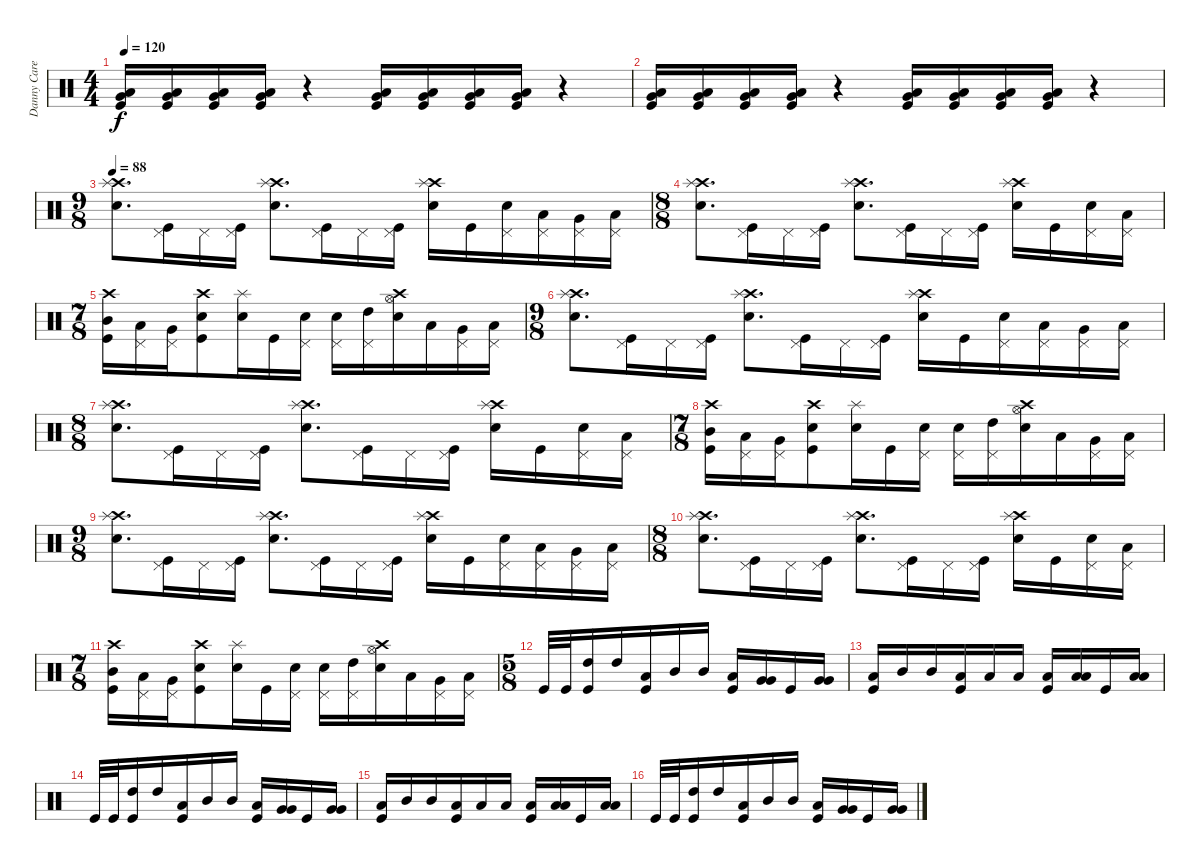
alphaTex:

\track ("Danny Carey" "Danny Care") {instrument percussion}
\staff {score}
\articulation defaults
\ts (4 4)
\tempo 120
\clef neutral
\ks c
("Very Low Tom (hit)" "Low Floor Tom (hit)" "Kick (hit)").16{dy f volume 16} ("Very Low Tom (hit)" "Low Floor Tom (hit)" "Kick (hit)").16 ("Very Low Tom (hit)" "Low Floor Tom (hit)" "Kick (hit)").16 ("Very Low Tom (hit)" "Low Floor Tom (hit)" "Kick (hit)").16 r.4 ("Very Low Tom (hit)" "Low Floor Tom (hit)" "Kick (hit)").16 ("Very Low Tom (hit)" "Low Floor Tom (hit)" "Kick (hit)").16 ("Very Low Tom (hit)" "Low Floor Tom (hit)" "Kick (hit)").16 ("Very Low Tom (hit)" "Low Floor Tom (hit)" "Kick (hit)").16 r.4 |
("Very Low Tom (hit)" "Low Floor Tom (hit)" "Kick (hit)").16 ("Very Low Tom (hit)" "Low Floor Tom (hit)" "Kick (hit)").16 ("Very Low Tom (hit)" "Low Floor Tom (hit)" "Kick (hit)").16 ("Very Low Tom (hit)" "Low Floor Tom (hit)" "Kick (hit)").16 r.4 ("Very Low Tom (hit)" "Low Floor Tom (hit)" "Kick (hit)").16 ("Very Low Tom (hit)" "Low Floor Tom (hit)" "Kick (hit)").16 ("Very Low Tom (hit)" "Low Floor Tom (hit)" "Kick (hit)").16 ("Very Low Tom (hit)" "Low Floor Tom (hit)" "Kick (hit)").16 r.4 |
\ts (9 8)
\tempo 88
("Crash high (hit)" "Splash (hit)" "Electric Snare (hit)").8{d} ("Pedal Hi-Hat (hit)" "Kick (hit)").16 "Pedal Hi-Hat (hit)".16 ("Pedal Hi-Hat (hit)" "Kick (hit)").16 ("Crash high (hit)" "Splash (hit)" "Electric Snare (hit)").8{d} ("Pedal Hi-Hat (hit)" "Kick (hit)").16 "Pedal Hi-Hat (hit)".16 ("Pedal Hi-Hat (hit)" "Kick (hit)").16 ("Crash high (hit)" "Splash (hit)" "Electric Snare (hit)").16 "Kick (hit)".16 ("Pedal Hi-Hat (hit)" "Electric Snare (hit)").16 ("Pedal Hi-Hat (hit)" "Low Tom (hit)").16 ("Pedal Hi-Hat (hit)" "Very Low Tom (hit)").16 ("Pedal Hi-Hat (hit)" "Low Floor Tom (hit)").16 |
\ts (8 8)
("Crash high (hit)" "Splash (hit)" "Electric Snare (hit)").8{d} ("Pedal Hi-Hat (hit)" "Kick (hit)").16 "Pedal Hi-Hat (hit)".16 ("Pedal Hi-Hat (hit)" "Kick (hit)").16 ("Crash high (hit)" "Splash (hit)" "Electric Snare (hit)").8{d} ("Pedal Hi-Hat (hit)" "Kick (hit)").16 "Pedal Hi-Hat (hit)".16 ("Pedal Hi-Hat (hit)" "Kick (hit)").16 ("Crash high (hit)" "Splash (hit)" "Electric Snare (hit)").16 "Kick (hit)".16 ("Pedal Hi-Hat (hit)" "Electric Snare (hit)").16 ("Pedal Hi-Hat (hit)" "Low Tom (hit)").16 |
\ts (7 8)
("Crash high (hit)" "Mid Tom (hit)" "Kick (hit)").16 ("Pedal Hi-Hat (hit)" "Low Tom (hit)").16 ("Pedal Hi-Hat (hit)" "Very Low Tom (hit)").16 ("Crash high (hit)" "Electric Snare (hit)" "Kick (hit)").8 ("Splash (hit)" "Electric Snare (hit)").16 "Kick (hit)".16 ("Pedal Hi-Hat (hit)" "Electric Snare (hit)").16 ("Pedal Hi-Hat (hit)" "Electric Snare (hit)").16 ("Pedal Hi-Hat (hit)" "High Tom (hit)").16 ("Crash high (hit)" "Hi-Hat (open)" "Electric Snare (hit)").16 "Low Tom (hit)".16 ("Pedal Hi-Hat (hit)" "Very Low Tom (hit)").16 ("Pedal Hi-Hat (hit)" "Low Floor Tom (hit)").16 |
\ts (9 8)
("Crash high (hit)" "Splash (hit)" "Electric Snare (hit)").8{d} ("Pedal Hi-Hat (hit)" "Kick (hit)").16 "Pedal Hi-Hat (hit)".16 ("Pedal Hi-Hat (hit)" "Kick (hit)").16 ("Crash high (hit)" "Splash (hit)" "Electric Snare (hit)").8{d} ("Pedal Hi-Hat (hit)" "Kick (hit)").16 "Pedal Hi-Hat (hit)".16 ("Pedal Hi-Hat (hit)" "Kick (hit)").16 ("Crash high (hit)" "Splash (hit)" "Electric Snare (hit)").16 "Kick (hit)".16 ("Pedal Hi-Hat (hit)" "Electric Snare (hit)").16 ("Pedal Hi-Hat (hit)" "Low Tom (hit)").16 ("Pedal Hi-Hat (hit)" "Very Low Tom (hit)").16 ("Pedal Hi-Hat (hit)" "Low Floor Tom (hit)").16 |
\ts (8 8)
("Crash high (hit)" "Splash (hit)" "Electric Snare (hit)").8{d} ("Pedal Hi-Hat (hit)" "Kick (hit)").16 "Pedal Hi-Hat (hit)".16 ("Pedal Hi-Hat (hit)" "Kick (hit)").16 ("Crash high (hit)" "Splash (hit)" "Electric Snare (hit)").8{d} ("Pedal Hi-Hat (hit)" "Kick (hit)").16 "Pedal Hi-Hat (hit)".16 ("Pedal Hi-Hat (hit)" "Kick (hit)").16 ("Crash high (hit)" "Splash (hit)" "Electric Snare (hit)").16 "Kick (hit)".16 ("Pedal Hi-Hat (hit)" "Electric Snare (hit)").16 ("Pedal Hi-Hat (hit)" "Low Tom (hit)").16 |
\ts (7 8)
("Crash high (hit)" "Mid Tom (hit)" "Kick (hit)").16 ("Pedal Hi-Hat (hit)" "Low Tom (hit)").16 ("Pedal Hi-Hat (hit)" "Very Low Tom (hit)").16 ("Crash high (hit)" "Electric Snare (hit)" "Kick (hit)").8 ("Splash (hit)" "Electric Snare (hit)").16 "Kick (hit)".16 ("Pedal Hi-Hat (hit)" "Electric Snare (hit)").16 ("Pedal Hi-Hat (hit)" "Electric Snare (hit)").16 ("Pedal Hi-Hat (hit)" "High Tom (hit)").16 ("Crash high (hit)" "Hi-Hat (open)" "Electric Snare (hit)").16 "Low Tom (hit)".16 ("Pedal Hi-Hat (hit)" "Very Low Tom (hit)").16 ("Pedal Hi-Hat (hit)" "Low Floor Tom (hit)").16 |
\ts (9 8)
("Crash high (hit)" "Splash (hit)" "Electric Snare (hit)").8{d} ("Pedal Hi-Hat (hit)" "Kick (hit)").16 "Pedal Hi-Hat (hit)".16 ("Pedal Hi-Hat (hit)" "Kick (hit)").16 ("Crash high (hit)" "Splash (hit)" "Electric Snare (hit)").8{d} ("Pedal Hi-Hat (hit)" "Kick (hit)").16 "Pedal Hi-Hat (hit)".16 ("Pedal Hi-Hat (hit)" "Kick (hit)").16 ("Crash high (hit)" "Splash (hit)" "Electric Snare (hit)").16 "Kick (hit)".16 ("Pedal Hi-Hat (hit)" "Electric Snare (hit)").16 ("Pedal Hi-Hat (hit)" "Low Tom (hit)").16 ("Pedal Hi-Hat (hit)" "Very Low Tom (hit)").16 ("Pedal Hi-Hat (hit)" "Low Floor Tom (hit)").16 |
\ts (8 8)
("Crash high (hit)" "Splash (hit)" "Electric Snare (hit)").8{d} ("Pedal Hi-Hat (hit)" "Kick (hit)").16 "Pedal Hi-Hat (hit)".16 ("Pedal Hi-Hat (hit)" "Kick (hit)").16 ("Crash high (hit)" "Splash (hit)" "Electric Snare (hit)").8{d} ("Pedal Hi-Hat (hit)" "Kick (hit)").16 "Pedal Hi-Hat (hit)".16 ("Pedal Hi-Hat (hit)" "Kick (hit)").16 ("Crash high (hit)" "Splash (hit)" "Electric Snare (hit)").16 "Kick (hit)".16 ("Pedal Hi-Hat (hit)" "Electric Snare (hit)").16 ("Pedal Hi-Hat (hit)" "Low Tom (hit)").16 |
\ts (7 8)
("Crash high (hit)" "Mid Tom (hit)" "Kick (hit)").16 ("Pedal Hi-Hat (hit)" "Low Tom (hit)").16 ("Pedal Hi-Hat (hit)" "Very Low Tom (hit)").16 ("Crash high (hit)" "Electric Snare (hit)" "Kick (hit)").8 ("Splash (hit)" "Electric Snare (hit)").16 "Kick (hit)".16 ("Pedal Hi-Hat (hit)" "Electric Snare (hit)").16 ("Pedal Hi-Hat (hit)" "Electric Snare (hit)").16 ("Pedal Hi-Hat (hit)" "High Tom (hit)").16 ("Crash high (hit)" "Hi-Hat (open)" "Electric Snare (hit)").16 "Low Tom (hit)".16 ("Pedal Hi-Hat (hit)" "Very Low Tom (hit)").16 ("Pedal Hi-Hat (hit)" "Low Floor Tom (hit)").16 |
\ts (5 8)
"Kick (hit)".32 "Kick (hit)".32 ("High Tom (hit)" "Kick (hit)").16 "High Tom (hit)".16 ("Low Floor Tom (hit)" "Kick (hit)").16 "Mid Tom (hit)".16 "Mid Tom (hit)".16 ("Low Floor Tom (hit)" "Kick (hit)").16 ("Very Low Tom (hit)" "Very Low Tom (hit)").16 "Kick (hit)".16 ("Very Low Tom (hit)" "Very Low Tom (hit)").16 |
("Low Floor Tom (hit)" "Kick (hit)").16 "Mid Tom (hit)".16 "Mid Tom (hit)".16 ("Low Floor Tom (hit)" "Kick (hit)").16 "Low Tom (hit)".16 "Low Tom (hit)".16 ("Low Floor Tom (hit)" "Kick (hit)").16 ("Low Floor Tom (hit)" "Low Floor Tom (hit)").16 "Kick (hit)".16 ("Low Floor Tom (hit)" "Low Floor Tom (hit)").16 |
"Kick (hit)".32 "Kick (hit)".32 ("High Tom (hit)" "Kick (hit)").16 "High Tom (hit)".16 ("Low Floor Tom (hit)" "Kick (hit)").16 "Mid Tom (hit)".16 "Mid Tom (hit)".16 ("Low Floor Tom (hit)" "Kick (hit)").16 ("Very Low Tom (hit)" "Very Low Tom (hit)").16 "Kick (hit)".16 ("Very Low Tom (hit)" "Very Low Tom (hit)").16 |
("Low Floor Tom (hit)" "Kick (hit)").16 "Mid Tom (hit)".16 "Mid Tom (hit)".16 ("Low Floor Tom (hit)" "Kick (hit)").16 "Low Tom (hit)".16 "Low Tom (hit)".16 ("Low Floor Tom (hit)" "Kick (hit)").16 ("Low Floor Tom (hit)" "Low Floor Tom (hit)").16 "Kick (hit)".16 ("Low Floor Tom (hit)" "Low Floor Tom (hit)").16 |
"Kick (hit)".32 "Kick (hit)".32 ("High Tom (hit)" "Kick (hit)").16 "High Tom (hit)".16 ("Low Floor Tom (hit)" "Kick (hit)").16 "Mid Tom (hit)".16 "Mid Tom (hit)".16 ("Low Floor Tom (hit)" "Kick (hit)").16 ("Very Low Tom (hit)" "Very Low Tom (hit)").16 "Kick (hit)".16 ("Very Low Tom (hit)" "Very Low Tom (hit)").16
